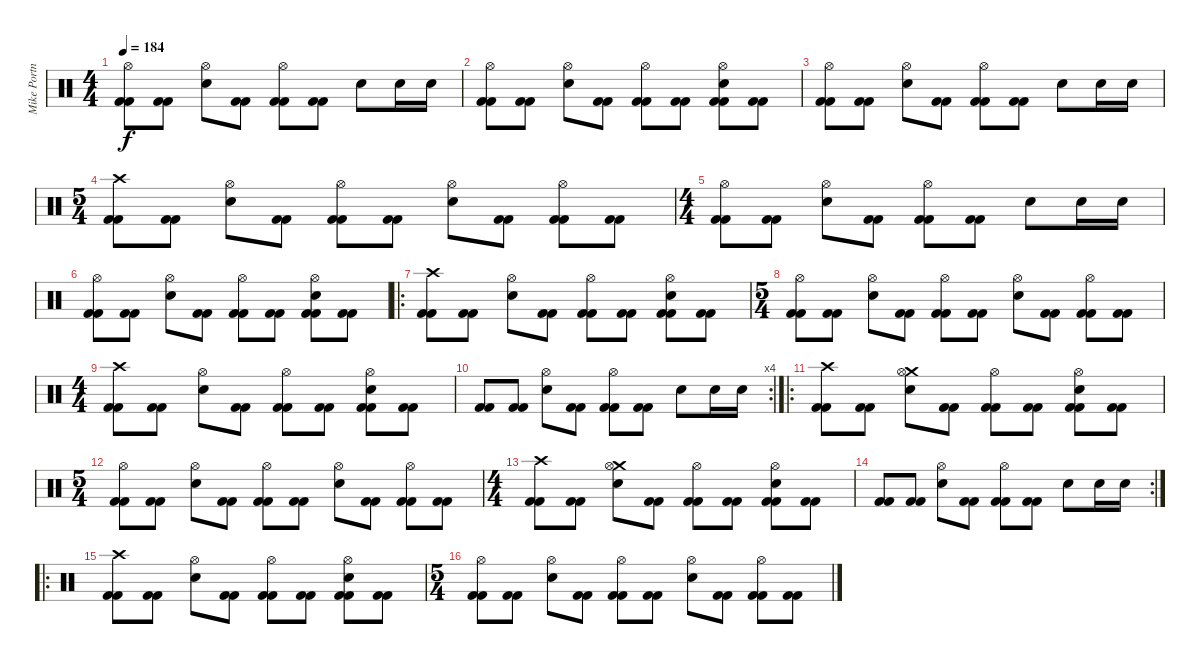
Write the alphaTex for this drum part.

\track ("Mike Portnoy - Drum" "Mike Portn") {instrument percussion}
\staff {score}
\articulation defaults
\ts (4 4)
\tempo 184
\clef neutral
\ks c
("Hi-Hat (open)" "Kick (hit) 2" "Kick (hit) 2").8{dy f} ("Kick (hit) 2" "Kick (hit) 2").8 ("Hi-Hat (open)" "Snare (hit) 2").8 ("Kick (hit) 2" "Kick (hit) 2").8 ("Hi-Hat (open)" "Kick (hit) 2" "Kick (hit) 2").8 ("Kick (hit) 2" "Kick (hit) 2").8 "Snare (hit) 2".8 "Snare (hit) 2".16 "Snare (hit) 2".16 |
("Hi-Hat (open)" "Kick (hit) 2" "Kick (hit) 2").8 ("Kick (hit) 2" "Kick (hit) 2").8 ("Hi-Hat (open)" "Snare (hit) 2").8 ("Kick (hit) 2" "Kick (hit) 2").8 ("Hi-Hat (open)" "Kick (hit) 2" "Kick (hit) 2").8 ("Kick (hit) 2" "Kick (hit) 2").8 ("Hi-Hat (open)" "Snare (hit) 2" "Kick (hit) 2" "Kick (hit) 2").8 ("Kick (hit) 2" "Kick (hit) 2").8 |
("Hi-Hat (open)" "Kick (hit) 2" "Kick (hit) 2").8 ("Kick (hit) 2" "Kick (hit) 2").8 ("Hi-Hat (open)" "Snare (hit) 2").8 ("Kick (hit) 2" "Kick (hit) 2").8 ("Hi-Hat (open)" "Kick (hit) 2" "Kick (hit) 2").8 ("Kick (hit) 2" "Kick (hit) 2").8 "Snare (hit) 2".8 "Snare (hit) 2".16 "Snare (hit) 2".16 |
\ts (5 4)
("Crash high (hit)" "Kick (hit) 2" "Kick (hit) 2").8 ("Kick (hit) 2" "Kick (hit) 2").8 ("Hi-Hat (open)" "Snare (hit) 2").8 ("Kick (hit) 2" "Kick (hit) 2").8 ("Hi-Hat (open)" "Kick (hit) 2" "Kick (hit) 2").8 ("Kick (hit) 2" "Kick (hit) 2").8 ("Hi-Hat (open)" "Snare (hit) 2").8 ("Kick (hit) 2" "Kick (hit) 2").8 ("Hi-Hat (open)" "Kick (hit) 2" "Kick (hit) 2").8 ("Kick (hit) 2" "Kick (hit) 2").8 |
\ts (4 4)
("Hi-Hat (open)" "Kick (hit) 2" "Kick (hit) 2").8 ("Kick (hit) 2" "Kick (hit) 2").8 ("Hi-Hat (open)" "Snare (hit) 2").8 ("Kick (hit) 2" "Kick (hit) 2").8 ("Hi-Hat (open)" "Kick (hit) 2" "Kick (hit) 2").8 ("Kick (hit) 2" "Kick (hit) 2").8 "Snare (hit) 2".8 "Snare (hit) 2".16 "Snare (hit) 2".16 |
("Hi-Hat (open)" "Kick (hit) 2" "Kick (hit) 2").8 ("Kick (hit) 2" "Kick (hit) 2").8 ("Hi-Hat (open)" "Snare (hit) 2").8 ("Kick (hit) 2" "Kick (hit) 2").8 ("Hi-Hat (open)" "Kick (hit) 2" "Kick (hit) 2").8 ("Kick (hit) 2" "Kick (hit) 2").8 ("Hi-Hat (open)" "Snare (hit) 2" "Kick (hit) 2" "Kick (hit) 2").8 ("Kick (hit) 2" "Kick (hit) 2").8 |
\ro
("Crash high (hit)" "Kick (hit) 2" "Kick (hit) 2").8 ("Kick (hit) 2" "Kick (hit) 2").8 ("Hi-Hat (open)" "Snare (hit) 2").8 ("Kick (hit) 2" "Kick (hit) 2").8 ("Hi-Hat (open)" "Kick (hit) 2" "Kick (hit) 2").8 ("Kick (hit) 2" "Kick (hit) 2").8 ("Hi-Hat (open)" "Snare (hit) 2" "Kick (hit) 2" "Kick (hit) 2").8 ("Kick (hit) 2" "Kick (hit) 2").8 |
\ts (5 4)
("Hi-Hat (open)" "Kick (hit) 2" "Kick (hit) 2").8 ("Kick (hit) 2" "Kick (hit) 2").8 ("Hi-Hat (open)" "Snare (hit) 2").8 ("Kick (hit) 2" "Kick (hit) 2").8 ("Hi-Hat (open)" "Kick (hit) 2" "Kick (hit) 2").8 ("Kick (hit) 2" "Kick (hit) 2").8 ("Hi-Hat (open)" "Snare (hit) 2").8 ("Kick (hit) 2" "Kick (hit) 2").8 ("Hi-Hat (open)" "Kick (hit) 2" "Kick (hit) 2").8 ("Kick (hit) 2" "Kick (hit) 2").8 |
\ts (4 4)
("Crash high (hit)" "Kick (hit) 2" "Kick (hit) 2").8 ("Kick (hit) 2" "Kick (hit) 2").8 ("Hi-Hat (open)" "Snare (hit) 2").8 ("Kick (hit) 2" "Kick (hit) 2").8 ("Hi-Hat (open)" "Kick (hit) 2" "Kick (hit) 2").8 ("Kick (hit) 2" "Kick (hit) 2").8 ("Hi-Hat (open)" "Snare (hit) 2" "Kick (hit) 2" "Kick (hit) 2").8 ("Kick (hit) 2" "Kick (hit) 2").8 |
\rc 4
("Kick (hit) 2" "Kick (hit) 2").8 ("Kick (hit) 2" "Kick (hit) 2").8 ("Hi-Hat (open)" "Snare (hit) 2").8 ("Kick (hit) 2" "Kick (hit) 2").8 ("Hi-Hat (open)" "Kick (hit) 2" "Kick (hit) 2").8 ("Kick (hit) 2" "Kick (hit) 2").8 "Snare (hit) 2".8 "Snare (hit) 2".16 "Snare (hit) 2".16 |
\ro
("Crash high (hit)" "Kick (hit) 2" "Kick (hit) 2").8 ("Kick (hit) 2" "Kick (hit) 2").8 ("Crash medium (hit)" "Hi-Hat (open)" "Snare (hit) 2").8 ("Kick (hit) 2" "Kick (hit) 2").8 ("Hi-Hat (open)" "Kick (hit) 2" "Kick (hit) 2").8 ("Kick (hit) 2" "Kick (hit) 2").8 ("Hi-Hat (open)" "Snare (hit) 2" "Kick (hit) 2" "Kick (hit) 2").8 ("Kick (hit) 2" "Kick (hit) 2").8 |
\ts (5 4)
("Hi-Hat (open)" "Kick (hit) 2" "Kick (hit) 2").8 ("Kick (hit) 2" "Kick (hit) 2").8 ("Hi-Hat (open)" "Snare (hit) 2").8 ("Kick (hit) 2" "Kick (hit) 2").8 ("Hi-Hat (open)" "Kick (hit) 2" "Kick (hit) 2").8 ("Kick (hit) 2" "Kick (hit) 2").8 ("Hi-Hat (open)" "Snare (hit) 2").8 ("Kick (hit) 2" "Kick (hit) 2").8 ("Hi-Hat (open)" "Kick (hit) 2" "Kick (hit) 2").8 ("Kick (hit) 2" "Kick (hit) 2").8 |
\ts (4 4)
("Crash high (hit)" "Kick (hit) 2" "Kick (hit) 2").8 ("Kick (hit) 2" "Kick (hit) 2").8 ("Crash medium (hit)" "Hi-Hat (open)" "Snare (hit) 2").8 ("Kick (hit) 2" "Kick (hit) 2").8 ("Hi-Hat (open)" "Kick (hit) 2" "Kick (hit) 2").8 ("Kick (hit) 2" "Kick (hit) 2").8 ("Hi-Hat (open)" "Snare (hit) 2" "Kick (hit) 2" "Kick (hit) 2").8 ("Kick (hit) 2" "Kick (hit) 2").8 |
\rc 2
("Kick (hit) 2" "Kick (hit) 2").8 ("Kick (hit) 2" "Kick (hit) 2").8 ("Hi-Hat (open)" "Snare (hit) 2").8 ("Kick (hit) 2" "Kick (hit) 2").8 ("Hi-Hat (open)" "Kick (hit) 2" "Kick (hit) 2").8 ("Kick (hit) 2" "Kick (hit) 2").8 "Snare (hit) 2".8 "Snare (hit) 2".16 "Snare (hit) 2".16 |
\ro
("Crash high (hit)" "Kick (hit) 2" "Kick (hit) 2").8 ("Kick (hit) 2" "Kick (hit) 2").8 ("Hi-Hat (open)" "Snare (hit) 2").8 ("Kick (hit) 2" "Kick (hit) 2").8 ("Hi-Hat (open)" "Kick (hit) 2" "Kick (hit) 2").8 ("Kick (hit) 2" "Kick (hit) 2").8 ("Hi-Hat (open)" "Snare (hit) 2" "Kick (hit) 2" "Kick (hit) 2").8 ("Kick (hit) 2" "Kick (hit) 2").8 |
\ts (5 4)
("Hi-Hat (open)" "Kick (hit) 2" "Kick (hit) 2").8 ("Kick (hit) 2" "Kick (hit) 2").8 ("Hi-Hat (open)" "Snare (hit) 2").8 ("Kick (hit) 2" "Kick (hit) 2").8 ("Hi-Hat (open)" "Kick (hit) 2" "Kick (hit) 2").8 ("Kick (hit) 2" "Kick (hit) 2").8 ("Hi-Hat (open)" "Snare (hit) 2").8 ("Kick (hit) 2" "Kick (hit) 2").8 ("Hi-Hat (open)" "Kick (hit) 2" "Kick (hit) 2").8 ("Kick (hit) 2" "Kick (hit) 2").8
